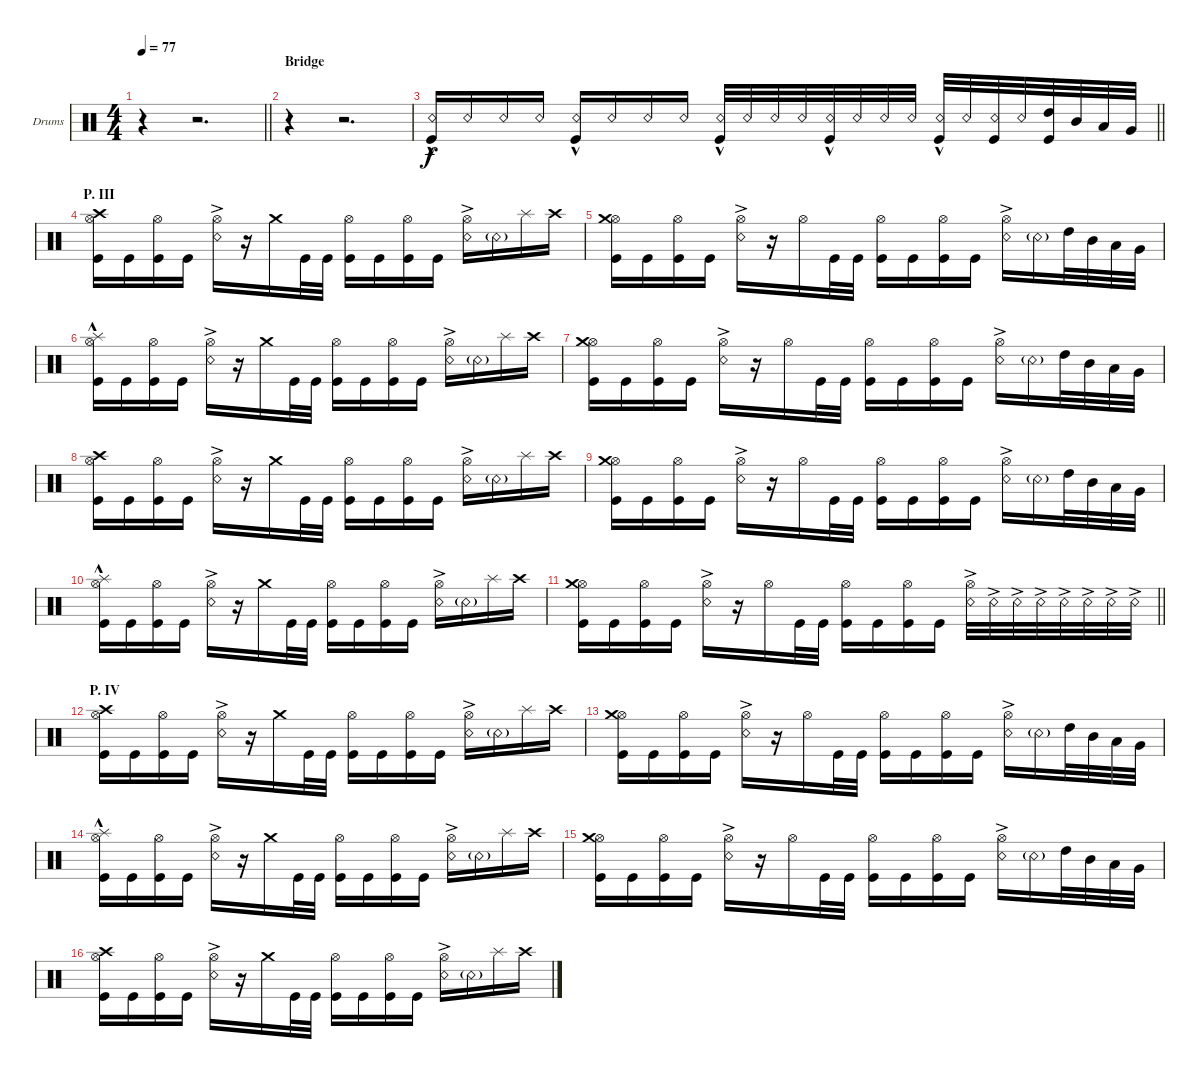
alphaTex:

\bracketExtendMode groupsimilarinstruments
\firstSystemTrackNameOrientation horizontal
\otherSystemsTrackNameOrientation horizontal
\track ("Drumkit" "Drums") {instrument percussion}
\staff {score}
\articulation defaults
\ts (4 4)
\tempo 77
\clef neutral
\barLineRight lightlight
\ks c
r.4{dy f} r.2{d} |
\section ("" "Bridge")
r.4 r.2{d} |
\barLineRight lightlight
("Snare (rim shot)"{hac} "Kick (hit)").16 "Snare (rim shot)".16 "Snare (rim shot)".16 "Snare (rim shot)".16 ("Snare (rim shot)"{hac} "Kick (hit)").16 "Snare (rim shot)".16 "Snare (rim shot)".16 "Snare (rim shot)".16 ("Snare (rim shot)"{hac} "Kick (hit)").32 "Snare (rim shot)".32 "Snare (rim shot)".32 "Snare (rim shot)".32 ("Snare (rim shot)"{hac} "Kick (hit)").32 "Snare (rim shot)".32 "Snare (rim shot)".32 "Snare (rim shot)".32 ("Snare (rim shot)"{hac} "Kick (hit)").32 "Snare (rim shot)".32 ("Snare (rim shot)" "Kick (hit)").32 "Snare (rim shot)".32 ("Kick (hit)" "High Tom (hit)").32 "Mid Tom (hit)".32 "Low Tom (hit)".32 "Very Low Tom (hit)".32 |
\section ("" "P. III")
("Hi-Hat (open)" "Kick (hit)" "Crash high (hit)").16 "Kick (hit)".16 ("Hi-Hat (open)" "Kick (hit)").16 "Kick (hit)".16 ("Hi-Hat (open)" "Snare (rim shot)"{ac}).16 r.16 "Crash medium (hit)".16 "Kick (hit)".32 "Kick (hit)".32 ("Hi-Hat (open)" "Kick (hit)").16 "Kick (hit)".16 ("Hi-Hat (open)" "Kick (hit)").16 "Kick (hit)".16 ("Hi-Hat (open)" "Snare (rim shot)"{ac}).16 "Snare (rim shot)"{g}.16 "Splash (hit)".16 "Crash high (hit)".16 |
("Hi-Hat (open)" "Kick (hit)" "Crash medium (hit)").16 "Kick (hit)".16 ("Hi-Hat (open)" "Kick (hit)").16 "Kick (hit)".16 ("Hi-Hat (open)" "Snare (rim shot)"{ac}).16 r.16 "Hi-Hat (open)".16 "Kick (hit)".32 "Kick (hit)".32 ("Hi-Hat (open)" "Kick (hit)").16 "Kick (hit)".16 ("Hi-Hat (open)" "Kick (hit)").16 "Kick (hit)".16 ("Hi-Hat (open)" "Snare (rim shot)"{ac}).16 "Snare (rim shot)"{g}.16 "High Tom (hit)".32 "Mid Tom (hit)".32 "Low Tom (hit)".32 "Very Low Tom (hit)".32 |
("Hi-Hat (open)" "Kick (hit)" "Splash (hit)"{hac}).16 "Kick (hit)".16 ("Hi-Hat (open)" "Kick (hit)").16 "Kick (hit)".16 ("Hi-Hat (open)" "Snare (rim shot)"{ac}).16 r.16 "Crash medium (hit)".16 "Kick (hit)".32 "Kick (hit)".32 ("Hi-Hat (open)" "Kick (hit)").16 "Kick (hit)".16 ("Hi-Hat (open)" "Kick (hit)").16 "Kick (hit)".16 ("Hi-Hat (open)" "Snare (rim shot)"{ac}).16 "Snare (rim shot)"{g}.16 "Splash (hit)".16 "Crash high (hit)".16 |
("Hi-Hat (open)" "Kick (hit)" "Crash medium (hit)").16 "Kick (hit)".16 ("Hi-Hat (open)" "Kick (hit)").16 "Kick (hit)".16 ("Hi-Hat (open)" "Snare (rim shot)"{ac}).16 r.16 "Hi-Hat (open)".16 "Kick (hit)".32 "Kick (hit)".32 ("Hi-Hat (open)" "Kick (hit)").16 "Kick (hit)".16 ("Hi-Hat (open)" "Kick (hit)").16 "Kick (hit)".16 ("Hi-Hat (open)" "Snare (rim shot)"{ac}).16 "Snare (rim shot)"{g}.16 "High Tom (hit)".32 "Mid Tom (hit)".32 "Low Tom (hit)".32 "Very Low Tom (hit)".32 |
("Hi-Hat (open)" "Kick (hit)" "Crash high (hit)").16 "Kick (hit)".16 ("Hi-Hat (open)" "Kick (hit)").16 "Kick (hit)".16 ("Hi-Hat (open)" "Snare (rim shot)"{ac}).16 r.16 "Crash medium (hit)".16 "Kick (hit)".32 "Kick (hit)".32 ("Hi-Hat (open)" "Kick (hit)").16 "Kick (hit)".16 ("Hi-Hat (open)" "Kick (hit)").16 "Kick (hit)".16 ("Hi-Hat (open)" "Snare (rim shot)"{ac}).16 "Snare (rim shot)"{g}.16 "Splash (hit)".16 "Crash high (hit)".16 |
("Hi-Hat (open)" "Kick (hit)" "Crash medium (hit)").16 "Kick (hit)".16 ("Hi-Hat (open)" "Kick (hit)").16 "Kick (hit)".16 ("Hi-Hat (open)" "Snare (rim shot)"{ac}).16 r.16 "Hi-Hat (open)".16 "Kick (hit)".32 "Kick (hit)".32 ("Hi-Hat (open)" "Kick (hit)").16 "Kick (hit)".16 ("Hi-Hat (open)" "Kick (hit)").16 "Kick (hit)".16 ("Hi-Hat (open)" "Snare (rim shot)"{ac}).16 "Snare (rim shot)"{g}.16 "High Tom (hit)".32 "Mid Tom (hit)".32 "Low Tom (hit)".32 "Very Low Tom (hit)".32 |
("Hi-Hat (open)" "Kick (hit)" "Splash (hit)"{hac}).16 "Kick (hit)".16 ("Hi-Hat (open)" "Kick (hit)").16 "Kick (hit)".16 ("Hi-Hat (open)" "Snare (rim shot)"{ac}).16 r.16 "Crash medium (hit)".16 "Kick (hit)".32 "Kick (hit)".32 ("Hi-Hat (open)" "Kick (hit)").16 "Kick (hit)".16 ("Hi-Hat (open)" "Kick (hit)").16 "Kick (hit)".16 ("Hi-Hat (open)" "Snare (rim shot)"{ac}).16 "Snare (rim shot)"{g}.16 "Splash (hit)".16 "Crash high (hit)".16 |
\barLineRight lightlight
("Hi-Hat (open)" "Kick (hit)" "Crash medium (hit)").16 "Kick (hit)".16 ("Hi-Hat (open)" "Kick (hit)").16 "Kick (hit)".16 ("Hi-Hat (open)" "Snare (rim shot)"{ac}).16 r.16 "Hi-Hat (open)".16 "Kick (hit)".32 "Kick (hit)".32 ("Hi-Hat (open)" "Kick (hit)").16 "Kick (hit)".16 ("Hi-Hat (open)" "Kick (hit)").16 "Kick (hit)".16 ("Hi-Hat (open)" "Snare (rim shot)"{ac}).32 "Snare (rim shot)"{ac}.32 "Snare (rim shot)"{ac}.32 "Snare (rim shot)"{ac}.32 "Snare (rim shot)"{ac}.32 "Snare (rim shot)"{ac}.32 "Snare (rim shot)"{ac}.32 "Snare (rim shot)"{ac}.32 |
\section ("" "P. IV")
("Hi-Hat (open)" "Kick (hit)" "Crash high (hit)").16 "Kick (hit)".16 ("Hi-Hat (open)" "Kick (hit)").16 "Kick (hit)".16 ("Hi-Hat (open)" "Snare (rim shot)"{ac}).16 r.16 "Crash medium (hit)".16 "Kick (hit)".32 "Kick (hit)".32 ("Hi-Hat (open)" "Kick (hit)").16 "Kick (hit)".16 ("Hi-Hat (open)" "Kick (hit)").16 "Kick (hit)".16 ("Hi-Hat (open)" "Snare (rim shot)"{ac}).16 "Snare (rim shot)"{g}.16 "Splash (hit)".16 "Crash high (hit)".16 |
("Hi-Hat (open)" "Kick (hit)" "Crash medium (hit)").16 "Kick (hit)".16 ("Hi-Hat (open)" "Kick (hit)").16 "Kick (hit)".16 ("Hi-Hat (open)" "Snare (rim shot)"{ac}).16 r.16 "Hi-Hat (open)".16 "Kick (hit)".32 "Kick (hit)".32 ("Hi-Hat (open)" "Kick (hit)").16 "Kick (hit)".16 ("Hi-Hat (open)" "Kick (hit)").16 "Kick (hit)".16 ("Hi-Hat (open)" "Snare (rim shot)"{ac}).16 "Snare (rim shot)"{g}.16 "High Tom (hit)".32 "Mid Tom (hit)".32 "Low Tom (hit)".32 "Very Low Tom (hit)".32 |
("Hi-Hat (open)" "Kick (hit)" "Splash (hit)"{hac}).16 "Kick (hit)".16 ("Hi-Hat (open)" "Kick (hit)").16 "Kick (hit)".16 ("Hi-Hat (open)" "Snare (rim shot)"{ac}).16 r.16 "Crash medium (hit)".16 "Kick (hit)".32 "Kick (hit)".32 ("Hi-Hat (open)" "Kick (hit)").16 "Kick (hit)".16 ("Hi-Hat (open)" "Kick (hit)").16 "Kick (hit)".16 ("Hi-Hat (open)" "Snare (rim shot)"{ac}).16 "Snare (rim shot)"{g}.16 "Splash (hit)".16 "Crash high (hit)".16 |
("Hi-Hat (open)" "Kick (hit)" "Crash medium (hit)").16 "Kick (hit)".16 ("Hi-Hat (open)" "Kick (hit)").16 "Kick (hit)".16 ("Hi-Hat (open)" "Snare (rim shot)"{ac}).16 r.16 "Hi-Hat (open)".16 "Kick (hit)".32 "Kick (hit)".32 ("Hi-Hat (open)" "Kick (hit)").16 "Kick (hit)".16 ("Hi-Hat (open)" "Kick (hit)").16 "Kick (hit)".16 ("Hi-Hat (open)" "Snare (rim shot)"{ac}).16 "Snare (rim shot)"{g}.16 "High Tom (hit)".32 "Mid Tom (hit)".32 "Low Tom (hit)".32 "Very Low Tom (hit)".32 |
("Hi-Hat (open)" "Kick (hit)" "Crash high (hit)").16 "Kick (hit)".16 ("Hi-Hat (open)" "Kick (hit)").16 "Kick (hit)".16 ("Hi-Hat (open)" "Snare (rim shot)"{ac}).16 r.16 "Crash medium (hit)".16 "Kick (hit)".32 "Kick (hit)".32 ("Hi-Hat (open)" "Kick (hit)").16 "Kick (hit)".16 ("Hi-Hat (open)" "Kick (hit)").16 "Kick (hit)".16 ("Hi-Hat (open)" "Snare (rim shot)"{ac}).16 "Snare (rim shot)"{g}.16 "Splash (hit)".16 "Crash high (hit)".16
